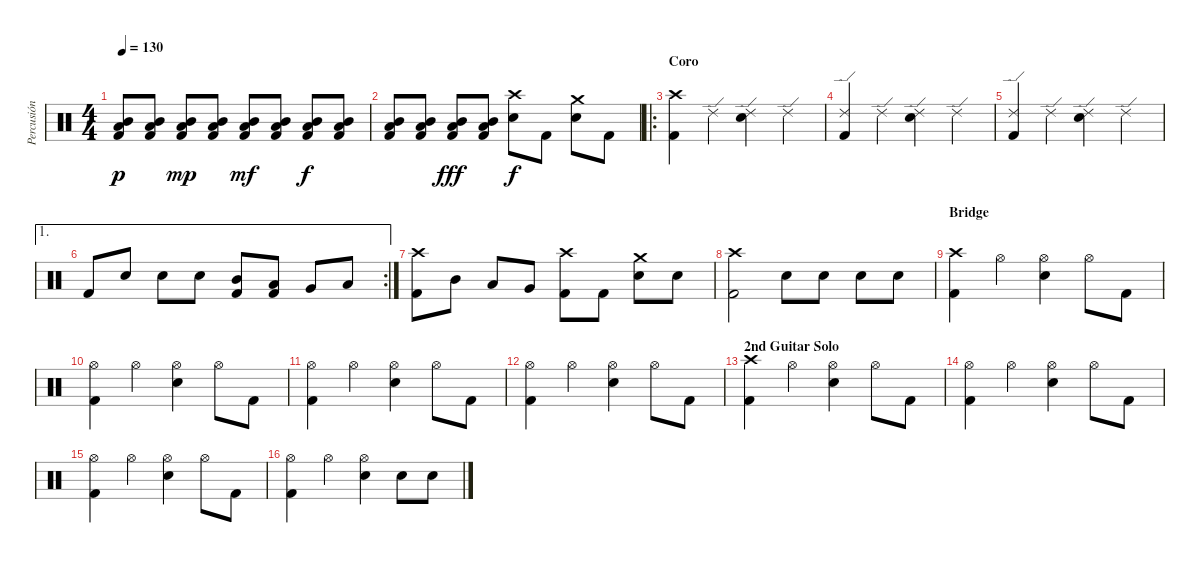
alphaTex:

\track ("Percusión" "Percusión") {instrument percussion}
\staff {score}
\articulation defaults
\ts (4 4)
\tempo 130
\clef neutral
\ks c
("Mid Tom (hit)" "Low Tom (hit)" "Kick (hit) 2").8{dy p} ("Mid Tom (hit)" "Low Tom (hit)" "Kick (hit) 2").8 ("Mid Tom (hit)" "Low Tom (hit)" "Kick (hit) 2").8{dy mp} ("Mid Tom (hit)" "Low Tom (hit)" "Kick (hit) 2").8 ("Mid Tom (hit)" "Low Tom (hit)" "Kick (hit) 2").8{dy mf} ("Mid Tom (hit)" "Low Tom (hit)" "Kick (hit) 2").8 ("Mid Tom (hit)" "Low Tom (hit)" "Kick (hit) 2").8{dy f} ("Mid Tom (hit)" "Low Tom (hit)" "Kick (hit) 2").8 |
("Mid Tom (hit)" "Low Tom (hit)" "Kick (hit) 2").8 ("Mid Tom (hit)" "Low Tom (hit)" "Kick (hit) 2").8 ("Mid Tom (hit)" "Low Tom (hit)" "Kick (hit) 2").8{dy fff} ("Mid Tom (hit)" "Low Tom (hit)" "Kick (hit) 2").8 ("Crash high (hit)" "Electric Snare (hit)").8{dy f} "Kick (hit) 2".8 ("Crash medium (hit)" "Electric Snare (hit)").8 "Kick (hit) 2".8 |
\ro
\section ("" "Coro")
("Crash high (hit)" "Kick (hit) 2").4 "Ride (edge) 2".4 ("Ride (edge) 2" "Electric Snare (hit)").4 "Ride (edge) 2".4 |
("Ride (edge) 2" "Kick (hit) 2").4 "Ride (edge) 2".4 ("Ride (edge) 2" "Electric Snare (hit)").4 "Ride (edge) 2".4 |
("Ride (edge) 2" "Kick (hit) 2").4 "Ride (edge) 2".4 ("Ride (edge) 2" "Electric Snare (hit)").4 "Ride (edge) 2".4 |
\ae 1
\rc 2 "Kick (hit) 2".8 "Electric Snare (hit)".8 "Electric Snare (hit)".8 "Electric Snare (hit)".8
("Mid Tom (hit)" "Kick (hit) 2").8 ("Low Tom (hit)" "Kick (hit) 2").8 "Very Low Tom (hit)".8 "Low Floor Tom (hit)".8 |
("Crash high (hit)" "Kick (hit) 2").8 "Mid Tom (hit)".8 "Low Tom (hit)".8 "Very Low Tom (hit)".8 ("Crash high (hit)" "Kick (hit) 2").8 "Kick (hit) 2".8 ("Crash medium (hit)" "Electric Snare (hit)").8 "Electric Snare (hit)".8 |
("Crash high (hit)" "Kick (hit) 2").2 "Electric Snare (hit)".8 "Electric Snare (hit)".8 "Electric Snare (hit)".8 "Electric Snare (hit)".8 |
\section ("" "Bridge")
("Crash high (hit)" "Kick (hit) 2").4 "Hi-Hat (open)".4 ("Hi-Hat (open)" "Electric Snare (hit)").4 "Hi-Hat (open)".8 "Kick (hit) 2".8 |
("Hi-Hat (open)" "Kick (hit) 2").4 "Hi-Hat (open)".4 ("Hi-Hat (open)" "Electric Snare (hit)").4 "Hi-Hat (open)".8 "Kick (hit) 2".8 |
("Hi-Hat (open)" "Kick (hit) 2").4 "Hi-Hat (open)".4 ("Hi-Hat (open)" "Electric Snare (hit)").4 "Hi-Hat (open)".8 "Kick (hit) 2".8 |
("Hi-Hat (open)" "Kick (hit) 2").4 "Hi-Hat (open)".4 ("Hi-Hat (open)" "Electric Snare (hit)").4 "Hi-Hat (open)".8 "Kick (hit) 2".8 |
\section ("" "2nd Guitar Solo")
("Crash high (hit)" "Kick (hit) 2").4 "Hi-Hat (open)".4 ("Hi-Hat (open)" "Electric Snare (hit)").4 "Hi-Hat (open)".8 "Kick (hit) 2".8 |
("Hi-Hat (open)" "Kick (hit) 2").4 "Hi-Hat (open)".4 ("Hi-Hat (open)" "Electric Snare (hit)").4 "Hi-Hat (open)".8 "Kick (hit) 2".8 |
("Hi-Hat (open)" "Kick (hit) 2").4 "Hi-Hat (open)".4 ("Hi-Hat (open)" "Electric Snare (hit)").4 "Hi-Hat (open)".8 "Kick (hit) 2".8 |
("Hi-Hat (open)" "Kick (hit) 2").4 "Hi-Hat (open)".4 ("Hi-Hat (open)" "Electric Snare (hit)").4 "Electric Snare (hit)".8 "Electric Snare (hit)".8
